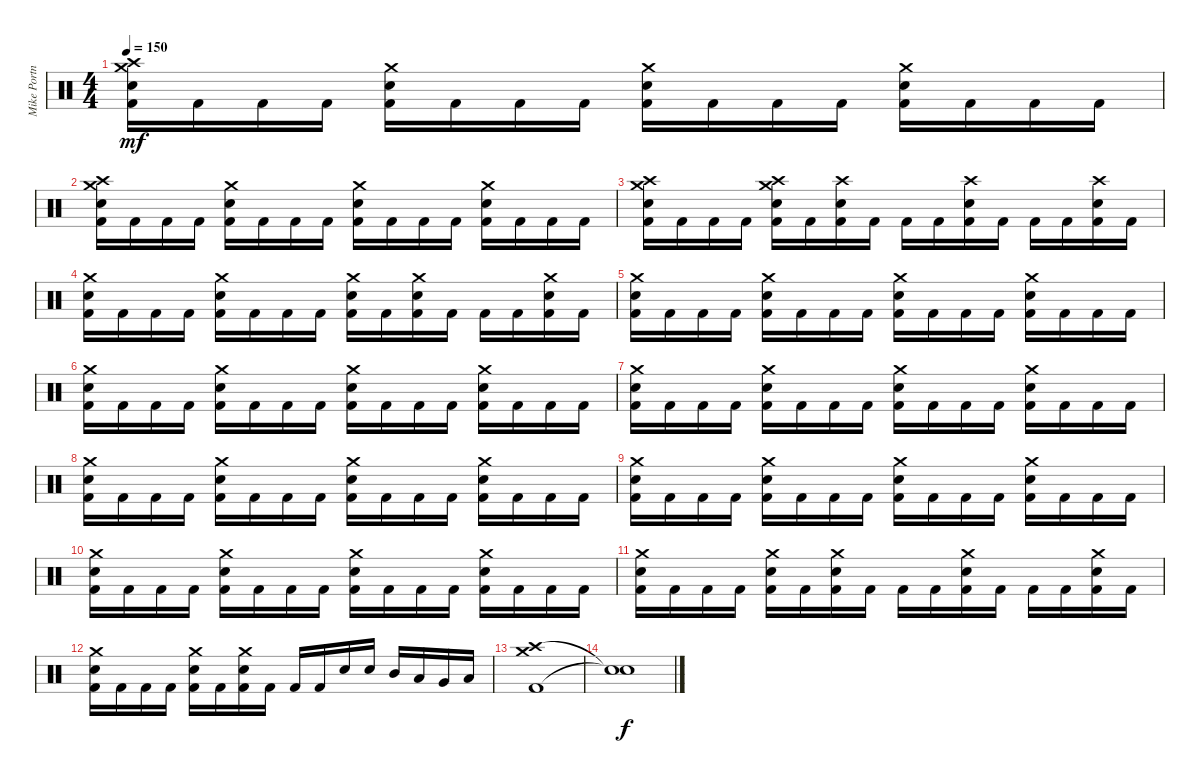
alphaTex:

\track ("Mike Portnoy: Drums" "Mike Portn") {instrument percussion}
\staff {score}
\articulation defaults
\ts (4 4)
\tempo 150
\clef neutral
\ks c
("Kick (hit) 2" "Electric Snare (hit)" "Crash high (hit)" "Crash medium (hit)").16{dy mf} "Kick (hit) 2".16 "Kick (hit) 2".16 "Kick (hit) 2".16 ("Kick (hit) 2" "Electric Snare (hit)" "Crash medium (hit)").16 "Kick (hit) 2".16 "Kick (hit) 2".16 "Kick (hit) 2".16 ("Kick (hit) 2" "Electric Snare (hit)" "Crash medium (hit)").16 "Kick (hit) 2".16 "Kick (hit) 2".16 "Kick (hit) 2".16 ("Kick (hit) 2" "Electric Snare (hit)" "Crash medium (hit)").16 "Kick (hit) 2".16 "Kick (hit) 2".16 "Kick (hit) 2".16 |
("Kick (hit) 2" "Electric Snare (hit)" "Crash high (hit)" "Crash medium (hit)").16 "Kick (hit) 2".16 "Kick (hit) 2".16 "Kick (hit) 2".16 ("Kick (hit) 2" "Electric Snare (hit)" "Crash medium (hit)").16 "Kick (hit) 2".16 "Kick (hit) 2".16 "Kick (hit) 2".16 ("Kick (hit) 2" "Electric Snare (hit)" "Crash medium (hit)").16 "Kick (hit) 2".16 "Kick (hit) 2".16 "Kick (hit) 2".16 ("Kick (hit) 2" "Electric Snare (hit)" "Crash medium (hit)").16 "Kick (hit) 2".16 "Kick (hit) 2".16 "Kick (hit) 2".16 |
("Kick (hit) 2" "Electric Snare (hit)" "Crash high (hit)" "Crash medium (hit)").16 "Kick (hit) 2".16 "Kick (hit) 2".16 "Kick (hit) 2".16 ("Kick (hit) 2" "Electric Snare (hit)" "Crash high (hit)" "Crash medium (hit)").16 "Kick (hit) 2".16 ("Kick (hit) 2" "Electric Snare (hit)" "Crash high (hit)").16 "Kick (hit) 2".16 "Kick (hit) 2".16 "Kick (hit) 2".16 ("Kick (hit) 2" "Electric Snare (hit)" "Crash high (hit)").16 "Kick (hit) 2".16 "Kick (hit) 2".16 "Kick (hit) 2".16 ("Kick (hit) 2" "Electric Snare (hit)" "Crash high (hit)").16 "Kick (hit) 2".16 |
("Kick (hit) 2" "Electric Snare (hit)" "Crash medium (hit)").16 "Kick (hit) 2".16 "Kick (hit) 2".16 "Kick (hit) 2".16 ("Kick (hit) 2" "Electric Snare (hit)" "Crash medium (hit)").16 "Kick (hit) 2".16 "Kick (hit) 2".16 "Kick (hit) 2".16 ("Kick (hit) 2" "Electric Snare (hit)" "Crash medium (hit)").16 "Kick (hit) 2".16 ("Kick (hit) 2" "Electric Snare (hit)" "Crash medium (hit)").16 "Kick (hit) 2".16 "Kick (hit) 2".16 "Kick (hit) 2".16 ("Kick (hit) 2" "Electric Snare (hit)" "Crash medium (hit)").16 "Kick (hit) 2".16 |
("Kick (hit) 2" "Electric Snare (hit)" "Crash medium (hit)").16 "Kick (hit) 2".16 "Kick (hit) 2".16 "Kick (hit) 2".16 ("Kick (hit) 2" "Electric Snare (hit)" "Crash medium (hit)").16 "Kick (hit) 2".16 "Kick (hit) 2".16 "Kick (hit) 2".16 ("Kick (hit) 2" "Electric Snare (hit)" "Crash medium (hit)").16 "Kick (hit) 2".16 "Kick (hit) 2".16 "Kick (hit) 2".16 ("Kick (hit) 2" "Electric Snare (hit)" "Crash medium (hit)").16 "Kick (hit) 2".16 "Kick (hit) 2".16 "Kick (hit) 2".16 |
("Kick (hit) 2" "Electric Snare (hit)" "Crash medium (hit)").16 "Kick (hit) 2".16 "Kick (hit) 2".16 "Kick (hit) 2".16 ("Kick (hit) 2" "Electric Snare (hit)" "Crash medium (hit)").16 "Kick (hit) 2".16 "Kick (hit) 2".16 "Kick (hit) 2".16 ("Kick (hit) 2" "Electric Snare (hit)" "Crash medium (hit)").16 "Kick (hit) 2".16 "Kick (hit) 2".16 "Kick (hit) 2".16 ("Kick (hit) 2" "Electric Snare (hit)" "Crash medium (hit)").16 "Kick (hit) 2".16 "Kick (hit) 2".16 "Kick (hit) 2".16 |
("Kick (hit) 2" "Electric Snare (hit)" "Crash medium (hit)").16 "Kick (hit) 2".16 "Kick (hit) 2".16 "Kick (hit) 2".16 ("Kick (hit) 2" "Electric Snare (hit)" "Crash medium (hit)").16 "Kick (hit) 2".16 "Kick (hit) 2".16 "Kick (hit) 2".16 ("Kick (hit) 2" "Electric Snare (hit)" "Crash medium (hit)").16 "Kick (hit) 2".16 "Kick (hit) 2".16 "Kick (hit) 2".16 ("Kick (hit) 2" "Electric Snare (hit)" "Crash medium (hit)").16 "Kick (hit) 2".16 "Kick (hit) 2".16 "Kick (hit) 2".16 |
("Kick (hit) 2" "Electric Snare (hit)" "Crash medium (hit)").16 "Kick (hit) 2".16 "Kick (hit) 2".16 "Kick (hit) 2".16 ("Kick (hit) 2" "Electric Snare (hit)" "Crash medium (hit)").16 "Kick (hit) 2".16 "Kick (hit) 2".16 "Kick (hit) 2".16 ("Kick (hit) 2" "Electric Snare (hit)" "Crash medium (hit)").16 "Kick (hit) 2".16 "Kick (hit) 2".16 "Kick (hit) 2".16 ("Kick (hit) 2" "Electric Snare (hit)" "Crash medium (hit)").16 "Kick (hit) 2".16 "Kick (hit) 2".16 "Kick (hit) 2".16 |
("Kick (hit) 2" "Electric Snare (hit)" "Crash medium (hit)").16 "Kick (hit) 2".16 "Kick (hit) 2".16 "Kick (hit) 2".16 ("Kick (hit) 2" "Electric Snare (hit)" "Crash medium (hit)").16 "Kick (hit) 2".16 "Kick (hit) 2".16 "Kick (hit) 2".16 ("Kick (hit) 2" "Electric Snare (hit)" "Crash medium (hit)").16 "Kick (hit) 2".16 "Kick (hit) 2".16 "Kick (hit) 2".16 ("Kick (hit) 2" "Electric Snare (hit)" "Crash medium (hit)").16 "Kick (hit) 2".16 "Kick (hit) 2".16 "Kick (hit) 2".16 |
("Kick (hit) 2" "Electric Snare (hit)" "Crash medium (hit)").16 "Kick (hit) 2".16 "Kick (hit) 2".16 "Kick (hit) 2".16 ("Kick (hit) 2" "Electric Snare (hit)" "Crash medium (hit)").16 "Kick (hit) 2".16 "Kick (hit) 2".16 "Kick (hit) 2".16 ("Kick (hit) 2" "Electric Snare (hit)" "Crash medium (hit)").16 "Kick (hit) 2".16 "Kick (hit) 2".16 "Kick (hit) 2".16 ("Kick (hit) 2" "Electric Snare (hit)" "Crash medium (hit)").16 "Kick (hit) 2".16 "Kick (hit) 2".16 "Kick (hit) 2".16 |
("Kick (hit) 2" "Electric Snare (hit)" "Crash medium (hit)").16 "Kick (hit) 2".16 "Kick (hit) 2".16 "Kick (hit) 2".16 ("Kick (hit) 2" "Electric Snare (hit)" "Crash medium (hit)").16 "Kick (hit) 2".16 ("Kick (hit) 2" "Electric Snare (hit)" "Crash medium (hit)").16 "Kick (hit) 2".16 "Kick (hit) 2".16 "Kick (hit) 2".16 ("Kick (hit) 2" "Electric Snare (hit)" "Crash medium (hit)").16 "Kick (hit) 2".16 "Kick (hit) 2".16 "Kick (hit) 2".16 ("Kick (hit) 2" "Electric Snare (hit)" "Crash medium (hit)").16 "Kick (hit) 2".16 |
("Kick (hit) 2" "Electric Snare (hit)" "Crash medium (hit)").16 "Kick (hit) 2".16 "Kick (hit) 2".16 "Kick (hit) 2".16 ("Kick (hit) 2" "Electric Snare (hit)" "Crash medium (hit)").16 "Kick (hit) 2".16 ("Kick (hit) 2" "Electric Snare (hit)" "Crash medium (hit)").16 "Kick (hit) 2".16 "Kick (hit) 2".16 "Kick (hit) 2".16 "Electric Snare (hit)".16 "Electric Snare (hit)".16 "Mid Tom (hit)".16 "Low Tom (hit)".16 "Very Low Tom (hit)".16 "Low Floor Tom (hit)".16 |
("Kick (hit) 2" "Crash high (hit)" "Crash medium (hit)").1 |
("Snare (hit)"{t} "Snare (hit)"{t}).1{dy f}
